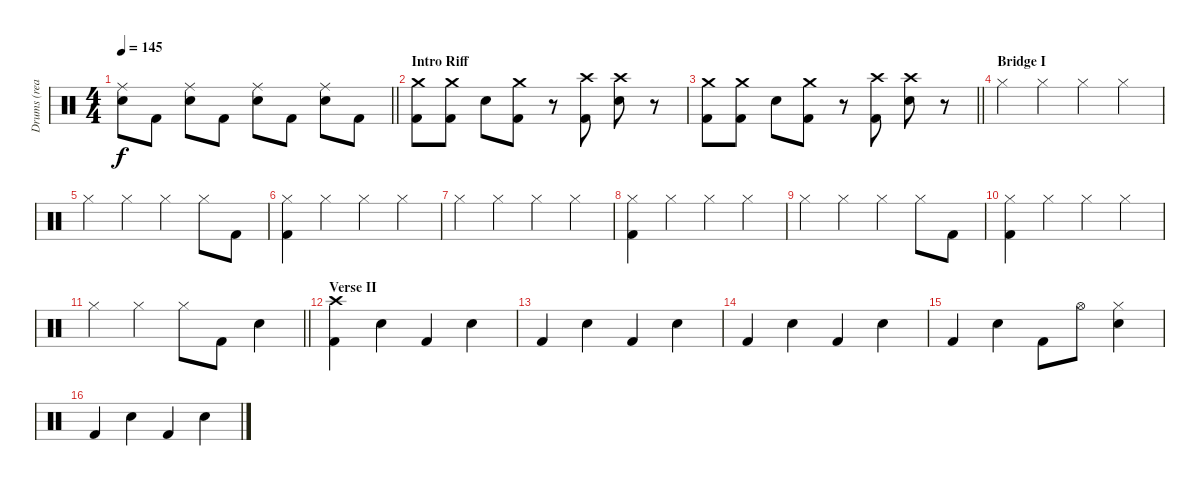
\track ("Drums (real)" "Drums (rea") {instrument percussion}
\staff {score}
\articulation defaults
\ts (4 4)
\tempo 145
\clef neutral
\barLineRight lightlight
\ks c
("Ride (middle)" "Snare (hit) 2").8{dy f} "Kick (hit) 2".8 ("Ride (middle)" "Snare (hit) 2").8 "Kick (hit) 2".8 ("Ride (middle)" "Snare (hit) 2").8 "Kick (hit) 2".8 ("Ride (middle)" "Snare (hit) 2").8 "Kick (hit) 2".8 |
\section ("" "Intro Riff")
("Crash medium (hit)" "Kick (hit) 2").8 ("Crash medium (hit)" "Kick (hit) 2").8 "Snare (hit) 2".8 ("Crash medium (hit)" "Kick (hit) 2").8 r.8 ("Crash high (hit)" "Kick (hit) 2").8 ("Crash high (hit)" "Snare (hit) 2").8 r.8 |
\barLineRight lightlight
("Crash medium (hit)" "Kick (hit) 2").8 ("Crash medium (hit)" "Kick (hit) 2").8 "Snare (hit) 2".8 ("Crash medium (hit)" "Kick (hit) 2").8 r.8 ("Crash high (hit)" "Kick (hit) 2").8 ("Crash high (hit)" "Snare (hit) 2").8 r.8 |
\section ("" "Bridge I")
"Hi-Hat (closed)".4 "Hi-Hat (closed)".4 "Hi-Hat (closed)".4 "Hi-Hat (closed)".4 |
"Hi-Hat (closed)".4 "Hi-Hat (closed)".4 "Hi-Hat (closed)".4 "Hi-Hat (closed)".8 "Kick (hit) 2".8 |
("Hi-Hat (closed)" "Kick (hit) 2").4 "Hi-Hat (closed)".4 "Hi-Hat (closed)".4 "Hi-Hat (closed)".4 |
"Hi-Hat (closed)".4 "Hi-Hat (closed)".4 "Hi-Hat (closed)".4 "Hi-Hat (closed)".4 |
("Hi-Hat (closed)" "Kick (hit) 2").4 "Hi-Hat (closed)".4 "Hi-Hat (closed)".4 "Hi-Hat (closed)".4 |
"Hi-Hat (closed)".4 "Hi-Hat (closed)".4 "Hi-Hat (closed)".4 "Hi-Hat (closed)".8 "Kick (hit) 2".8 |
("Hi-Hat (closed)" "Kick (hit) 2").4 "Hi-Hat (closed)".4 "Hi-Hat (closed)".4 "Hi-Hat (closed)".4 |
\barLineRight lightlight "Hi-Hat (closed)".4 "Hi-Hat (closed)".4 "Hi-Hat (closed)".8 "Kick (hit) 2".8 "Snare (hit) 2".4
|
\section ("" "Verse II")
("Crash high (hit)" "Kick (hit) 2").4 "Snare (hit) 2".4 "Kick (hit) 2".4 "Snare (hit) 2".4 |
"Kick (hit) 2".4 "Snare (hit) 2".4 "Kick (hit) 2".4 "Snare (hit) 2".4 |
"Kick (hit) 2".4 "Snare (hit) 2".4 "Kick (hit) 2".4 "Snare (hit) 2".4 |
"Kick (hit) 2".4 "Snare (hit) 2".4 "Kick (hit) 2".8 "Hi-Hat (open)".8 ("Hi-Hat (closed)" "Snare (hit) 2").4 |
"Kick (hit) 2".4 "Snare (hit) 2".4 "Kick (hit) 2".4 "Snare (hit) 2".4
